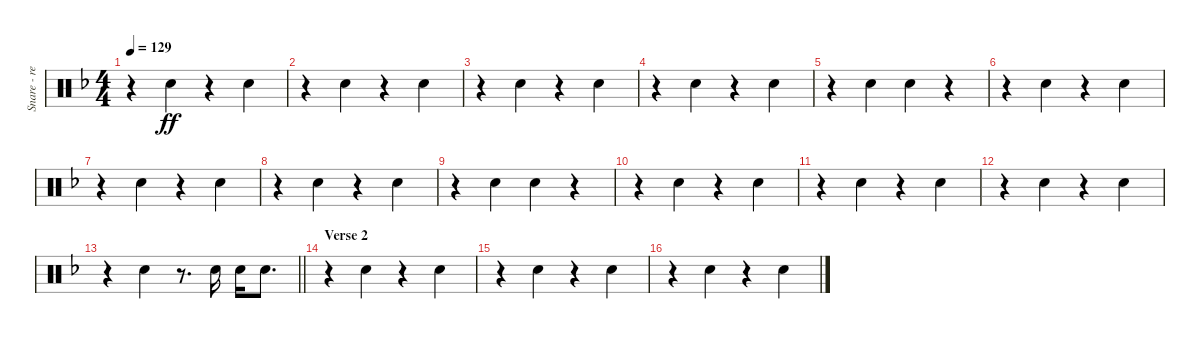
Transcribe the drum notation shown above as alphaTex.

\track ("Snare - reverb" "Snare - re") {instrument percussion}
\staff {score}
\articulation defaults
\ts (4 4)
\tempo 129
\clef neutral
\ks dminor
r.4{dy ff} "Snare (hit) 2".4 r.4 "Snare (hit) 2".4 |
r.4 "Snare (hit) 2".4 r.4 "Snare (hit) 2".4 |
r.4 "Snare (hit) 2".4 r.4 "Snare (hit) 2".4 |
r.4 "Snare (hit) 2".4 r.4 "Snare (hit) 2".4 |
r.4 "Snare (hit) 2".4 "Snare (hit) 2".4 r.4 |
r.4 "Snare (hit) 2".4 r.4 "Snare (hit) 2".4 |
r.4 "Snare (hit) 2".4 r.4 "Snare (hit) 2".4 |
r.4 "Snare (hit) 2".4 r.4 "Snare (hit) 2".4 |
r.4 "Snare (hit) 2".4 "Snare (hit) 2".4 r.4 |
r.4 "Snare (hit) 2".4 r.4 "Snare (hit) 2".4 |
r.4 "Snare (hit) 2".4 r.4 "Snare (hit) 2".4 |
r.4 "Snare (hit) 2".4 r.4 "Snare (hit) 2".4 |
\barLineRight lightlight
r.4 "Snare (hit) 2".4 r.8{d} "Snare (hit) 2".16 "Snare (hit) 2".16 "Snare (hit) 2".8{d} |
\section ("" "Verse 2")
r.4 "Snare (hit) 2".4 r.4 "Snare (hit) 2".4 |
r.4 "Snare (hit) 2".4 r.4 "Snare (hit) 2".4 |
r.4 "Snare (hit) 2".4 r.4 "Snare (hit) 2".4
